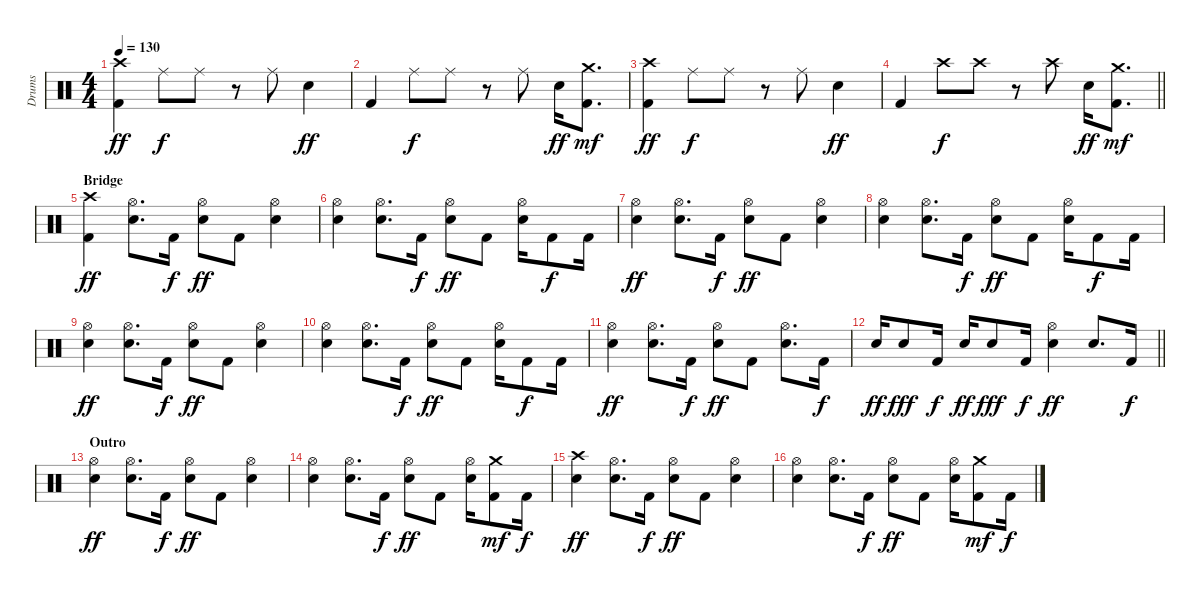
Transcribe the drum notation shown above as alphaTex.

\track ("Drums" "Drums") {instrument percussion}
\staff {score}
\articulation defaults
\ts (4 4)
\tempo 130
\clef neutral
\ks c
("Crash high (hit)" "Kick (hit) 2").4{dy ff} "Ride (middle)".8{dy f} "Ride (middle)".8 r.8 "Ride (middle)".8 "Electric Snare (hit)".4{dy ff} |
"Kick (hit) 2".4 "Ride (middle)".8{dy f} "Ride (middle)".8 r.8 "Ride (middle)".8 "Electric Snare (hit)".16{dy ff} ("Crash medium (hit)" "Kick (hit) 2").8{d dy mf} |
("Crash high (hit)" "Kick (hit) 2").4{dy ff} "Ride (middle)".8{dy f} "Ride (middle)".8 r.8 "Ride (middle)".8 "Electric Snare (hit)".4{dy ff} |
\barLineRight lightlight "Kick (hit) 2".4 "Crash high (hit)".8{dy f} "Crash high (hit)".8
r.8 "Crash high (hit)".8 "Electric Snare (hit)".16{dy ff} ("Crash medium (hit)" "Kick (hit) 2").8{d dy mf} |
\section ("" "Bridge")
("Crash high (hit)" "Kick (hit) 2").4{dy ff} ("Hi-Hat (open)" "Electric Snare (hit)").8{d} "Kick (hit) 2".16{dy f} ("Hi-Hat (open)" "Electric Snare (hit)").8{dy ff} "Kick (hit) 2".8 ("Hi-Hat (open)" "Electric Snare (hit)").4 |
("Hi-Hat (open)" "Electric Snare (hit)").4 ("Hi-Hat (open)" "Electric Snare (hit)").8{d} "Kick (hit) 2".16{dy f} ("Hi-Hat (open)" "Electric Snare (hit)").8{dy ff} "Kick (hit) 2".8 ("Hi-Hat (open)" "Electric Snare (hit)").16 "Kick (hit) 2".8{dy f} "Kick (hit) 2".16 |
("Hi-Hat (open)" "Electric Snare (hit)").4{dy ff} ("Hi-Hat (open)" "Electric Snare (hit)").8{d} "Kick (hit) 2".16{dy f} ("Hi-Hat (open)" "Electric Snare (hit)").8{dy ff} "Kick (hit) 2".8 ("Hi-Hat (open)" "Electric Snare (hit)").4 |
("Hi-Hat (open)" "Electric Snare (hit)").4 ("Hi-Hat (open)" "Electric Snare (hit)").8{d} "Kick (hit) 2".16{dy f} ("Hi-Hat (open)" "Electric Snare (hit)").8{dy ff} "Kick (hit) 2".8 ("Hi-Hat (open)" "Electric Snare (hit)").16 "Kick (hit) 2".8{dy f} "Kick (hit) 2".16 |
("Hi-Hat (open)" "Electric Snare (hit)").4{dy ff} ("Hi-Hat (open)" "Electric Snare (hit)").8{d} "Kick (hit) 2".16{dy f} ("Hi-Hat (open)" "Electric Snare (hit)").8{dy ff} "Kick (hit) 2".8 ("Hi-Hat (open)" "Electric Snare (hit)").4 |
("Hi-Hat (open)" "Electric Snare (hit)").4 ("Hi-Hat (open)" "Electric Snare (hit)").8{d} "Kick (hit) 2".16{dy f} ("Hi-Hat (open)" "Electric Snare (hit)").8{dy ff} "Kick (hit) 2".8 ("Hi-Hat (open)" "Electric Snare (hit)").16 "Kick (hit) 2".8{dy f} "Kick (hit) 2".16 |
("Hi-Hat (open)" "Electric Snare (hit)").4{dy ff} ("Hi-Hat (open)" "Electric Snare (hit)").8{d} "Kick (hit) 2".16{dy f} ("Hi-Hat (open)" "Electric Snare (hit)").8{dy ff} "Kick (hit) 2".8 ("Hi-Hat (open)" "Electric Snare (hit)").8{d} "Kick (hit) 2".16{dy f} |
\barLineRight lightlight "Electric Snare (hit)".16{dy ff} "Electric Snare (hit)".8{dy fff} "Kick (hit) 2".16{dy f} "Electric Snare (hit)".16{dy ff} "Electric Snare (hit)".8{dy fff} "Kick (hit) 2".16{dy f}
("Hi-Hat (open)" "Electric Snare (hit)").4{dy ff} "Electric Snare (hit)".8{d} "Kick (hit) 2".16{dy f} |
\section ("" "Outro")
("Hi-Hat (open)" "Electric Snare (hit)").4{dy ff} ("Hi-Hat (open)" "Electric Snare (hit)").8{d} "Kick (hit) 2".16{dy f} ("Hi-Hat (open)" "Electric Snare (hit)").8{dy ff} "Kick (hit) 2".8 ("Hi-Hat (open)" "Electric Snare (hit)").4 |
("Hi-Hat (open)" "Electric Snare (hit)").4 ("Hi-Hat (open)" "Electric Snare (hit)").8{d} "Kick (hit) 2".16{dy f} ("Hi-Hat (open)" "Electric Snare (hit)").8{dy ff} "Kick (hit) 2".8 ("Hi-Hat (open)" "Electric Snare (hit)").16 ("Crash medium (hit)" "Kick (hit) 2").8{dy mf} "Kick (hit) 2".16{dy f} |
("Crash high (hit)" "Electric Snare (hit)").4{dy ff} ("Hi-Hat (open)" "Electric Snare (hit)").8{d} "Kick (hit) 2".16{dy f} ("Hi-Hat (open)" "Electric Snare (hit)").8{dy ff} "Kick (hit) 2".8 ("Hi-Hat (open)" "Electric Snare (hit)").4 |
("Hi-Hat (open)" "Electric Snare (hit)").4 ("Hi-Hat (open)" "Electric Snare (hit)").8{d} "Kick (hit) 2".16{dy f} ("Hi-Hat (open)" "Electric Snare (hit)").8{dy ff} "Kick (hit) 2".8 ("Hi-Hat (open)" "Electric Snare (hit)").16 ("Crash medium (hit)" "Kick (hit) 2").8{dy mf} "Kick (hit) 2".16{dy f}
